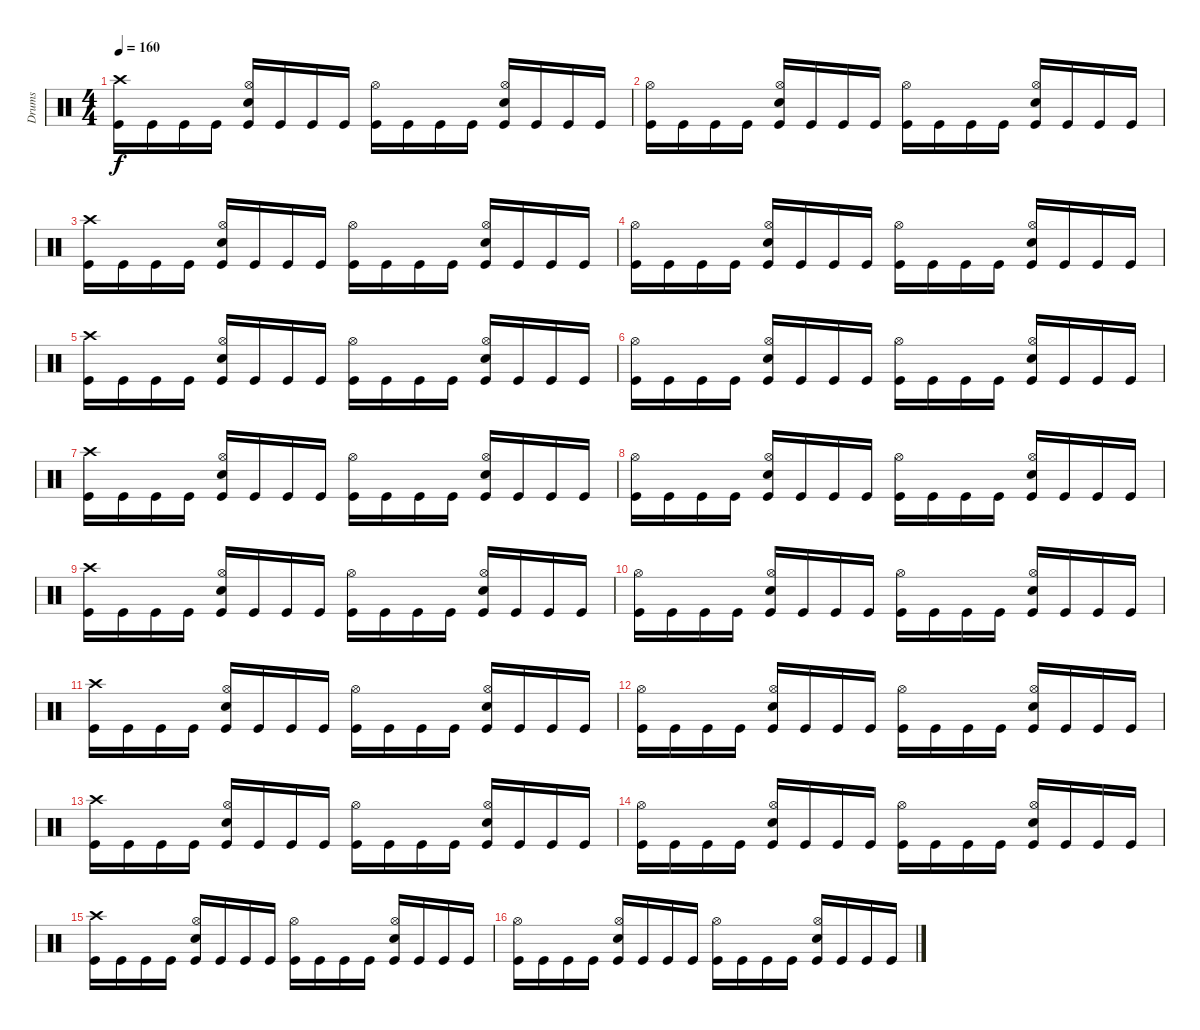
\track ("Drums" "Drums") {instrument percussion}
\staff {score}
\articulation defaults
\ts (4 4)
\tempo 160
\clef neutral
\ks c
("Crash high (hit)" "Kick (hit)").16{dy f} "Kick (hit)".16 "Kick (hit)".16 "Kick (hit)".16 ("Hi-Hat (open)" "Snare (hit) 2" "Kick (hit)").16 "Kick (hit)".16 "Kick (hit)".16 "Kick (hit)".16 ("Hi-Hat (open)" "Kick (hit)").16 "Kick (hit)".16 "Kick (hit)".16 "Kick (hit)".16 ("Hi-Hat (open)" "Snare (hit) 2" "Kick (hit)").16 "Kick (hit)".16 "Kick (hit)".16 "Kick (hit)".16 |
("Hi-Hat (open)" "Kick (hit)").16 "Kick (hit)".16 "Kick (hit)".16 "Kick (hit)".16 ("Hi-Hat (open)" "Snare (hit) 2" "Kick (hit)").16 "Kick (hit)".16 "Kick (hit)".16 "Kick (hit)".16 ("Hi-Hat (open)" "Kick (hit)").16 "Kick (hit)".16 "Kick (hit)".16 "Kick (hit)".16 ("Hi-Hat (open)" "Snare (hit) 2" "Kick (hit)").16 "Kick (hit)".16 "Kick (hit)".16 "Kick (hit)".16 |
("Crash high (hit)" "Kick (hit)").16 "Kick (hit)".16 "Kick (hit)".16 "Kick (hit)".16 ("Hi-Hat (open)" "Snare (hit) 2" "Kick (hit)").16 "Kick (hit)".16 "Kick (hit)".16 "Kick (hit)".16 ("Hi-Hat (open)" "Kick (hit)").16 "Kick (hit)".16 "Kick (hit)".16 "Kick (hit)".16 ("Hi-Hat (open)" "Snare (hit) 2" "Kick (hit)").16 "Kick (hit)".16 "Kick (hit)".16 "Kick (hit)".16 |
("Hi-Hat (open)" "Kick (hit)").16 "Kick (hit)".16 "Kick (hit)".16 "Kick (hit)".16 ("Hi-Hat (open)" "Snare (hit) 2" "Kick (hit)").16 "Kick (hit)".16 "Kick (hit)".16 "Kick (hit)".16 ("Hi-Hat (open)" "Kick (hit)").16 "Kick (hit)".16 "Kick (hit)".16 "Kick (hit)".16 ("Hi-Hat (open)" "Snare (hit) 2" "Kick (hit)").16 "Kick (hit)".16 "Kick (hit)".16 "Kick (hit)".16 |
("Crash high (hit)" "Kick (hit)").16 "Kick (hit)".16 "Kick (hit)".16 "Kick (hit)".16 ("Hi-Hat (open)" "Snare (hit) 2" "Kick (hit)").16 "Kick (hit)".16 "Kick (hit)".16 "Kick (hit)".16 ("Hi-Hat (open)" "Kick (hit)").16 "Kick (hit)".16 "Kick (hit)".16 "Kick (hit)".16 ("Hi-Hat (open)" "Snare (hit) 2" "Kick (hit)").16 "Kick (hit)".16 "Kick (hit)".16 "Kick (hit)".16 |
("Hi-Hat (open)" "Kick (hit)").16 "Kick (hit)".16 "Kick (hit)".16 "Kick (hit)".16 ("Hi-Hat (open)" "Snare (hit) 2" "Kick (hit)").16 "Kick (hit)".16 "Kick (hit)".16 "Kick (hit)".16 ("Hi-Hat (open)" "Kick (hit)").16 "Kick (hit)".16 "Kick (hit)".16 "Kick (hit)".16 ("Hi-Hat (open)" "Snare (hit) 2" "Kick (hit)").16 "Kick (hit)".16 "Kick (hit)".16 "Kick (hit)".16 |
("Crash high (hit)" "Kick (hit)").16 "Kick (hit)".16 "Kick (hit)".16 "Kick (hit)".16 ("Hi-Hat (open)" "Snare (hit) 2" "Kick (hit)").16 "Kick (hit)".16 "Kick (hit)".16 "Kick (hit)".16 ("Hi-Hat (open)" "Kick (hit)").16 "Kick (hit)".16 "Kick (hit)".16 "Kick (hit)".16 ("Hi-Hat (open)" "Snare (hit) 2" "Kick (hit)").16 "Kick (hit)".16 "Kick (hit)".16 "Kick (hit)".16 |
("Hi-Hat (open)" "Kick (hit)").16 "Kick (hit)".16 "Kick (hit)".16 "Kick (hit)".16 ("Hi-Hat (open)" "Snare (hit) 2" "Kick (hit)").16 "Kick (hit)".16 "Kick (hit)".16 "Kick (hit)".16 ("Hi-Hat (open)" "Kick (hit)").16 "Kick (hit)".16 "Kick (hit)".16 "Kick (hit)".16 ("Hi-Hat (open)" "Snare (hit) 2" "Kick (hit)").16 "Kick (hit)".16 "Kick (hit)".16 "Kick (hit)".16 |
("Crash high (hit)" "Kick (hit)").16 "Kick (hit)".16 "Kick (hit)".16 "Kick (hit)".16 ("Hi-Hat (open)" "Snare (hit) 2" "Kick (hit)").16 "Kick (hit)".16 "Kick (hit)".16 "Kick (hit)".16 ("Hi-Hat (open)" "Kick (hit)").16 "Kick (hit)".16 "Kick (hit)".16 "Kick (hit)".16 ("Hi-Hat (open)" "Snare (hit) 2" "Kick (hit)").16 "Kick (hit)".16 "Kick (hit)".16 "Kick (hit)".16 |
("Hi-Hat (open)" "Kick (hit)").16 "Kick (hit)".16 "Kick (hit)".16 "Kick (hit)".16 ("Hi-Hat (open)" "Snare (hit) 2" "Kick (hit)").16 "Kick (hit)".16 "Kick (hit)".16 "Kick (hit)".16 ("Hi-Hat (open)" "Kick (hit)").16 "Kick (hit)".16 "Kick (hit)".16 "Kick (hit)".16 ("Hi-Hat (open)" "Snare (hit) 2" "Kick (hit)").16 "Kick (hit)".16 "Kick (hit)".16 "Kick (hit)".16 |
("Crash high (hit)" "Kick (hit)").16 "Kick (hit)".16 "Kick (hit)".16 "Kick (hit)".16 ("Hi-Hat (open)" "Snare (hit) 2" "Kick (hit)").16 "Kick (hit)".16 "Kick (hit)".16 "Kick (hit)".16 ("Hi-Hat (open)" "Kick (hit)").16 "Kick (hit)".16 "Kick (hit)".16 "Kick (hit)".16 ("Hi-Hat (open)" "Snare (hit) 2" "Kick (hit)").16 "Kick (hit)".16 "Kick (hit)".16 "Kick (hit)".16 |
("Hi-Hat (open)" "Kick (hit)").16 "Kick (hit)".16 "Kick (hit)".16 "Kick (hit)".16 ("Hi-Hat (open)" "Snare (hit) 2" "Kick (hit)").16 "Kick (hit)".16 "Kick (hit)".16 "Kick (hit)".16 ("Hi-Hat (open)" "Kick (hit)").16 "Kick (hit)".16 "Kick (hit)".16 "Kick (hit)".16 ("Hi-Hat (open)" "Snare (hit) 2" "Kick (hit)").16 "Kick (hit)".16 "Kick (hit)".16 "Kick (hit)".16 |
("Crash high (hit)" "Kick (hit)").16 "Kick (hit)".16 "Kick (hit)".16 "Kick (hit)".16 ("Hi-Hat (open)" "Snare (hit) 2" "Kick (hit)").16 "Kick (hit)".16 "Kick (hit)".16 "Kick (hit)".16 ("Hi-Hat (open)" "Kick (hit)").16 "Kick (hit)".16 "Kick (hit)".16 "Kick (hit)".16 ("Hi-Hat (open)" "Snare (hit) 2" "Kick (hit)").16 "Kick (hit)".16 "Kick (hit)".16 "Kick (hit)".16 |
("Hi-Hat (open)" "Kick (hit)").16 "Kick (hit)".16 "Kick (hit)".16 "Kick (hit)".16 ("Hi-Hat (open)" "Snare (hit) 2" "Kick (hit)").16 "Kick (hit)".16 "Kick (hit)".16 "Kick (hit)".16 ("Hi-Hat (open)" "Kick (hit)").16 "Kick (hit)".16 "Kick (hit)".16 "Kick (hit)".16 ("Hi-Hat (open)" "Snare (hit) 2" "Kick (hit)").16 "Kick (hit)".16 "Kick (hit)".16 "Kick (hit)".16 |
("Crash high (hit)" "Kick (hit)").16 "Kick (hit)".16 "Kick (hit)".16 "Kick (hit)".16 ("Hi-Hat (open)" "Snare (hit) 2" "Kick (hit)").16 "Kick (hit)".16 "Kick (hit)".16 "Kick (hit)".16 ("Hi-Hat (open)" "Kick (hit)").16 "Kick (hit)".16 "Kick (hit)".16 "Kick (hit)".16 ("Hi-Hat (open)" "Snare (hit) 2" "Kick (hit)").16 "Kick (hit)".16 "Kick (hit)".16 "Kick (hit)".16 |
("Hi-Hat (open)" "Kick (hit)").16 "Kick (hit)".16 "Kick (hit)".16 "Kick (hit)".16 ("Hi-Hat (open)" "Snare (hit) 2" "Kick (hit)").16 "Kick (hit)".16 "Kick (hit)".16 "Kick (hit)".16 ("Hi-Hat (open)" "Kick (hit)").16 "Kick (hit)".16 "Kick (hit)".16 "Kick (hit)".16 ("Hi-Hat (open)" "Snare (hit) 2" "Kick (hit)").16 "Kick (hit)".16 "Kick (hit)".16 "Kick (hit)".16
